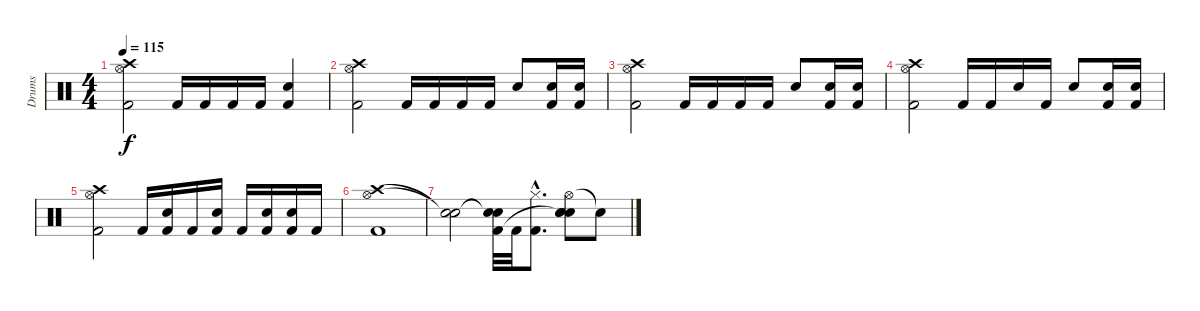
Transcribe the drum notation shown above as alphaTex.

\track ("Drums" "Drums") {instrument percussion}
\staff {score}
\articulation defaults
\ts (4 4)
\tempo 115
\clef neutral
\ks c
("Crash high (hit)" "Hi-Hat (open)" "Kick (hit) 2").2{dy f} "Kick (hit) 2".16 "Kick (hit) 2".16 "Kick (hit) 2".16 "Kick (hit) 2".16 ("Electric Snare (hit)" "Kick (hit) 2").4 |
("Crash high (hit)" "Hi-Hat (open)" "Kick (hit) 2").2 "Kick (hit) 2".16 "Kick (hit) 2".16 "Kick (hit) 2".16 "Kick (hit) 2".16 "Electric Snare (hit)".8 ("Electric Snare (hit)" "Kick (hit) 2").16 ("Electric Snare (hit)" "Kick (hit) 2").16 |
("Crash high (hit)" "Hi-Hat (open)" "Kick (hit) 2").2 "Kick (hit) 2".16 "Kick (hit) 2".16 "Kick (hit) 2".16 "Kick (hit) 2".16 "Electric Snare (hit)".8 ("Electric Snare (hit)" "Kick (hit) 2").16 ("Electric Snare (hit)" "Kick (hit) 2").16 |
("Crash high (hit)" "Hi-Hat (open)" "Kick (hit) 2").2 "Kick (hit) 2".16 "Kick (hit) 2".16 "Electric Snare (hit)".16 "Kick (hit) 2".16 "Electric Snare (hit)".8 ("Electric Snare (hit)" "Kick (hit) 2").16 ("Electric Snare (hit)" "Kick (hit) 2").16 |
("Crash high (hit)" "Hi-Hat (open)" "Kick (hit) 2").2 "Kick (hit) 2".16 ("Electric Snare (hit)" "Kick (hit) 2").16 "Kick (hit) 2".16 ("Electric Snare (hit)" "Kick (hit) 2").16 "Kick (hit) 2".16 ("Electric Snare (hit)" "Kick (hit) 2").16 ("Electric Snare (hit)" "Kick (hit) 2").16 "Kick (hit) 2".16 |
("Crash high (hit)" "Hi-Hat (open)" "Kick (hit) 2").1 |
("Snare (hit)"{t} "Snare (hit)"{t}).2 ("Snare (hit)"{t} "Snare (hit)"{t} "Kick (hit) 2").32 "Kick (hit) 2".32 ("Hi-Hat (closed)"{hac} "Kick (hit) 2"{hac}).8{d} ("Hi-Hat (open)" "Electric Snare (hit)" "Snare (hit)"{t} "Snare (hit)").8 "Snare (hit)"{t}.8
